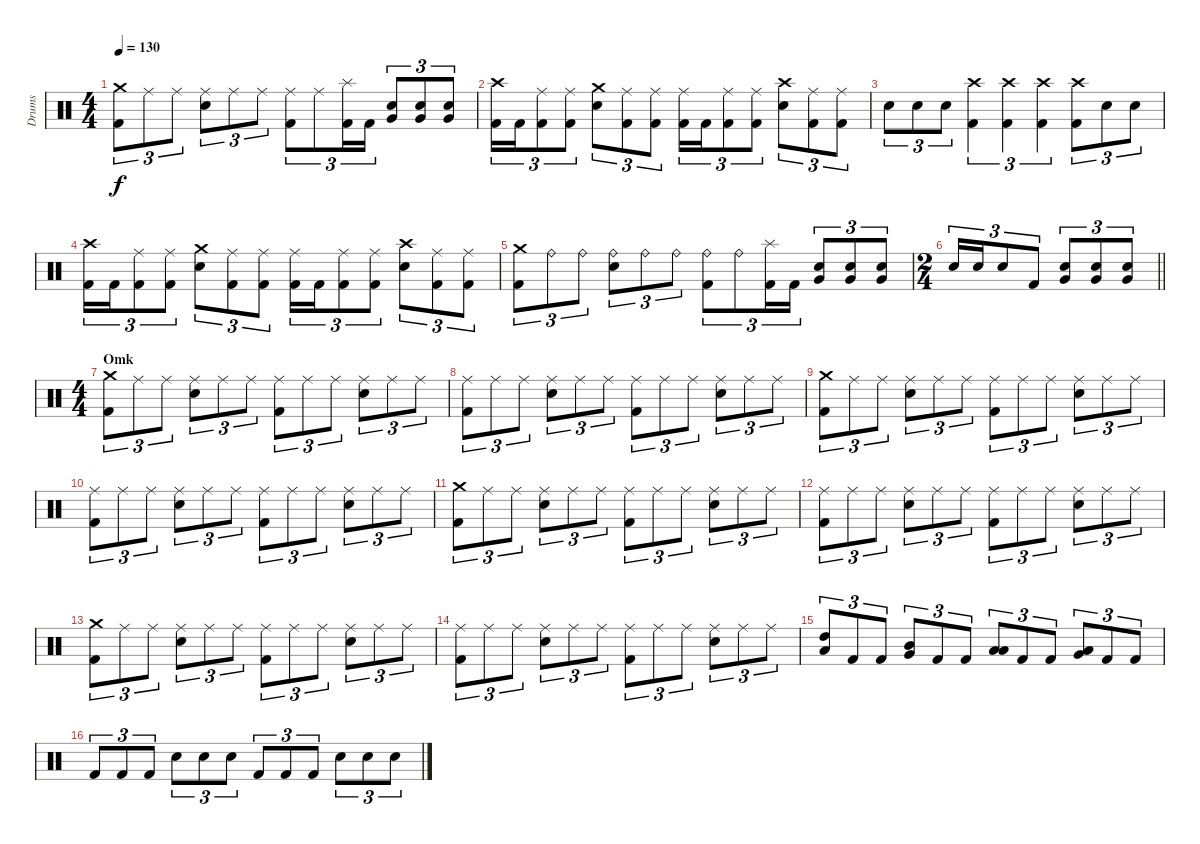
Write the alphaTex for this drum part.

\track ("Drums" "Drums") {instrument percussion}
\staff {score}
\articulation defaults
\ts (4 4)
\tempo 130
\clef neutral
\ks c
("Crash medium (hit)" "Kick (hit) 2").8{tu (3 2) dy f} "Ride (middle)".8{tu (3 2)} "Ride (middle)".8{tu (3 2)} ("Ride (middle)" "Snare (hit) 2").8{tu (3 2)} "Ride (middle)".8{tu (3 2)} "Ride (middle)".8{tu (3 2)} ("Ride (middle)" "Kick (hit) 2").8{tu (3 2)} "Ride (middle)".8{tu (3 2)} ("Splash (hit)" "Kick (hit) 2").16{tu (3 2)} "Kick (hit) 2".16{tu (3 2)} ("Very Low Tom (hit)" "Snare (hit) 2").8{tu (3 2)} ("Very Low Tom (hit)" "Snare (hit) 2").8{tu (3 2)} ("Very Low Tom (hit)" "Snare (hit) 2").8{tu (3 2)} |
("Crash high (hit)" "Kick (hit) 2").16{tu (3 2)} "Kick (hit) 2".16{tu (3 2)} ("Ride (middle)" "Kick (hit) 2").8{tu (3 2)} ("Ride (middle)" "Kick (hit) 2").8{tu (3 2)} ("Crash medium (hit)" "Snare (hit) 2").8{tu (3 2)} ("Ride (middle)" "Kick (hit) 2").8{tu (3 2)} ("Ride (middle)" "Kick (hit) 2").8{tu (3 2)} ("Ride (middle)" "Kick (hit) 2").16{tu (3 2)} "Kick (hit) 2".16{tu (3 2)} ("Ride (middle)" "Kick (hit) 2").8{tu (3 2)} ("Ride (middle)" "Kick (hit) 2").8{tu (3 2)} ("Crash high (hit)" "Snare (hit) 2").8{tu (3 2)} ("Ride (middle)" "Kick (hit) 2").8{tu (3 2)} ("Ride (middle)" "Kick (hit) 2").8{tu (3 2)} |
"Snare (hit) 2".8{tu (3 2)} "Snare (hit) 2".8{tu (3 2)} "Snare (hit) 2".8{tu (3 2)} ("Crash high (hit)" "Kick (hit) 2").4{tu (3 2)} ("Crash high (hit)" "Kick (hit) 2").4{tu (3 2)} ("Crash high (hit)" "Kick (hit) 2").4{tu (3 2)} ("Crash high (hit)" "Kick (hit) 2").8{tu (3 2)} "Snare (hit) 2".8{tu (3 2)} "Snare (hit) 2".8{tu (3 2)} |
("Crash high (hit)" "Kick (hit) 2").16{tu (3 2)} "Kick (hit) 2".16{tu (3 2)} ("Ride (middle)" "Kick (hit) 2").8{tu (3 2)} ("Ride (middle)" "Kick (hit) 2").8{tu (3 2)} ("Crash medium (hit)" "Snare (hit) 2").8{tu (3 2)} ("Ride (middle)" "Kick (hit) 2").8{tu (3 2)} ("Ride (middle)" "Kick (hit) 2").8{tu (3 2)} ("Ride (middle)" "Kick (hit) 2").16{tu (3 2)} "Kick (hit) 2".16{tu (3 2)} ("Ride (middle)" "Kick (hit) 2").8{tu (3 2)} ("Ride (middle)" "Kick (hit) 2").8{tu (3 2)} ("Crash high (hit)" "Snare (hit) 2").8{tu (3 2)} ("Ride (middle)" "Kick (hit) 2").8{tu (3 2)} ("Ride (middle)" "Kick (hit) 2").8{tu (3 2)} |
("Crash medium (hit)" "Kick (hit) 2").8{tu (3 2)} "Ride (bell)".8{tu (3 2)} "Ride (bell)".8{tu (3 2)} ("Ride (bell)" "Snare (hit) 2").8{tu (3 2)} "Ride (bell)".8{tu (3 2)} "Ride (bell)".8{tu (3 2)} ("Ride (bell)" "Kick (hit) 2").8{tu (3 2)} "Ride (bell)".8{tu (3 2)} ("Splash (hit)" "Kick (hit) 2").16{tu (3 2)} "Kick (hit) 2".16{tu (3 2)} ("Very Low Tom (hit)" "Snare (hit) 2").8{tu (3 2)} ("Very Low Tom (hit)" "Snare (hit) 2").8{tu (3 2)} ("Very Low Tom (hit)" "Snare (hit) 2").8{tu (3 2)} |
\ts (2 4)
\barLineRight lightlight "Snare (hit) 2".16{tu (3 2)} "Snare (hit) 2".16{tu (3 2)} "Snare (hit) 2".8{tu (3 2)} "Kick (hit) 2".8{tu (3 2)}
("Very Low Tom (hit)" "Snare (hit) 2").8{tu (3 2)} ("Very Low Tom (hit)" "Snare (hit) 2").8{tu (3 2)} ("Very Low Tom (hit)" "Snare (hit) 2").8{tu (3 2)} |
\ts (4 4)
\section ("" "Omk")
("Crash medium (hit)" "Kick (hit) 2").8{tu (3 2)} "Ride (middle)".8{tu (3 2)} "Ride (middle)".8{tu (3 2)} ("Ride (middle)" "Snare (hit) 2").8{tu (3 2)} "Ride (middle)".8{tu (3 2)} "Ride (middle)".8{tu (3 2)} ("Ride (middle)" "Kick (hit) 2").8{tu (3 2)} "Ride (middle)".8{tu (3 2)} "Ride (middle)".8{tu (3 2)} ("Ride (middle)" "Snare (hit) 2").8{tu (3 2)} "Ride (middle)".8{tu (3 2)} "Ride (middle)".8{tu (3 2)} |
("Ride (middle)" "Kick (hit) 2").8{tu (3 2)} "Ride (middle)".8{tu (3 2)} "Ride (middle)".8{tu (3 2)} ("Ride (middle)" "Snare (hit) 2").8{tu (3 2)} "Ride (middle)".8{tu (3 2)} "Ride (middle)".8{tu (3 2)} ("Ride (middle)" "Kick (hit) 2").8{tu (3 2)} "Ride (middle)".8{tu (3 2)} "Ride (middle)".8{tu (3 2)} ("Ride (middle)" "Snare (hit) 2").8{tu (3 2)} "Ride (middle)".8{tu (3 2)} "Ride (middle)".8{tu (3 2)} |
("Crash medium (hit)" "Kick (hit) 2").8{tu (3 2)} "Ride (middle)".8{tu (3 2)} "Ride (middle)".8{tu (3 2)} ("Ride (middle)" "Snare (hit) 2").8{tu (3 2)} "Ride (middle)".8{tu (3 2)} "Ride (middle)".8{tu (3 2)} ("Ride (middle)" "Kick (hit) 2").8{tu (3 2)} "Ride (middle)".8{tu (3 2)} "Ride (middle)".8{tu (3 2)} ("Ride (middle)" "Snare (hit) 2").8{tu (3 2)} "Ride (middle)".8{tu (3 2)} "Ride (middle)".8{tu (3 2)} |
("Ride (middle)" "Kick (hit) 2").8{tu (3 2)} "Ride (middle)".8{tu (3 2)} "Ride (middle)".8{tu (3 2)} ("Ride (middle)" "Snare (hit) 2").8{tu (3 2)} "Ride (middle)".8{tu (3 2)} "Ride (middle)".8{tu (3 2)} ("Ride (middle)" "Kick (hit) 2").8{tu (3 2)} "Ride (middle)".8{tu (3 2)} "Ride (middle)".8{tu (3 2)} ("Ride (middle)" "Snare (hit) 2").8{tu (3 2)} "Ride (middle)".8{tu (3 2)} "Ride (middle)".8{tu (3 2)} |
("Crash medium (hit)" "Kick (hit) 2").8{tu (3 2)} "Ride (middle)".8{tu (3 2)} "Ride (middle)".8{tu (3 2)} ("Ride (middle)" "Snare (hit) 2").8{tu (3 2)} "Ride (middle)".8{tu (3 2)} "Ride (middle)".8{tu (3 2)} ("Ride (middle)" "Kick (hit) 2").8{tu (3 2)} "Ride (middle)".8{tu (3 2)} "Ride (middle)".8{tu (3 2)} ("Ride (middle)" "Snare (hit) 2").8{tu (3 2)} "Ride (middle)".8{tu (3 2)} "Ride (middle)".8{tu (3 2)} |
("Ride (middle)" "Kick (hit) 2").8{tu (3 2)} "Ride (middle)".8{tu (3 2)} "Ride (middle)".8{tu (3 2)} ("Ride (middle)" "Snare (hit) 2").8{tu (3 2)} "Ride (middle)".8{tu (3 2)} "Ride (middle)".8{tu (3 2)} ("Ride (middle)" "Kick (hit) 2").8{tu (3 2)} "Ride (middle)".8{tu (3 2)} "Ride (middle)".8{tu (3 2)} ("Ride (middle)" "Snare (hit) 2").8{tu (3 2)} "Ride (middle)".8{tu (3 2)} "Ride (middle)".8{tu (3 2)} |
("Crash medium (hit)" "Kick (hit) 2").8{tu (3 2)} "Ride (middle)".8{tu (3 2)} "Ride (middle)".8{tu (3 2)} ("Ride (middle)" "Snare (hit) 2").8{tu (3 2)} "Ride (middle)".8{tu (3 2)} "Ride (middle)".8{tu (3 2)} ("Ride (middle)" "Kick (hit) 2").8{tu (3 2)} "Ride (middle)".8{tu (3 2)} "Ride (middle)".8{tu (3 2)} ("Ride (middle)" "Snare (hit) 2").8{tu (3 2)} "Ride (middle)".8{tu (3 2)} "Ride (middle)".8{tu (3 2)} |
("Ride (middle)" "Kick (hit) 2").8{tu (3 2)} "Ride (middle)".8{tu (3 2)} "Ride (middle)".8{tu (3 2)} ("Ride (middle)" "Snare (hit) 2").8{tu (3 2)} "Ride (middle)".8{tu (3 2)} "Ride (middle)".8{tu (3 2)} ("Ride (middle)" "Kick (hit) 2").8{tu (3 2)} "Ride (middle)".8{tu (3 2)} "Ride (middle)".8{tu (3 2)} ("Ride (middle)" "Snare (hit) 2").8{tu (3 2)} "Ride (middle)".8{tu (3 2)} "Ride (middle)".8{tu (3 2)} |
("High Tom (hit)" "Low Tom (hit)").8{tu (3 2)} "Kick (hit) 2".8{tu (3 2)} "Kick (hit) 2".8{tu (3 2)} ("Mid Tom (hit)" "Very Low Tom (hit)").8{tu (3 2)} "Kick (hit) 2".8{tu (3 2)} "Kick (hit) 2".8{tu (3 2)} ("Low Tom (hit)" "Low Floor Tom (hit)").8{tu (3 2)} "Kick (hit) 2".8{tu (3 2)} "Kick (hit) 2".8{tu (3 2)} ("Low Tom (hit)" "Very Low Tom (hit)").8{tu (3 2)} "Kick (hit) 2".8{tu (3 2)} "Kick (hit) 2".8{tu (3 2)} |
"Kick (hit) 2".8{tu (3 2)} "Kick (hit) 2".8{tu (3 2)} "Kick (hit) 2".8{tu (3 2)} "Snare (hit) 2".8{tu (3 2)} "Snare (hit) 2".8{tu (3 2)} "Snare (hit) 2".8{tu (3 2)} "Kick (hit) 2".8{tu (3 2)} "Kick (hit) 2".8{tu (3 2)} "Kick (hit) 2".8{tu (3 2)} "Snare (hit) 2".8{tu (3 2)} "Snare (hit) 2".8{tu (3 2)} "Snare (hit) 2".8{tu (3 2)}
